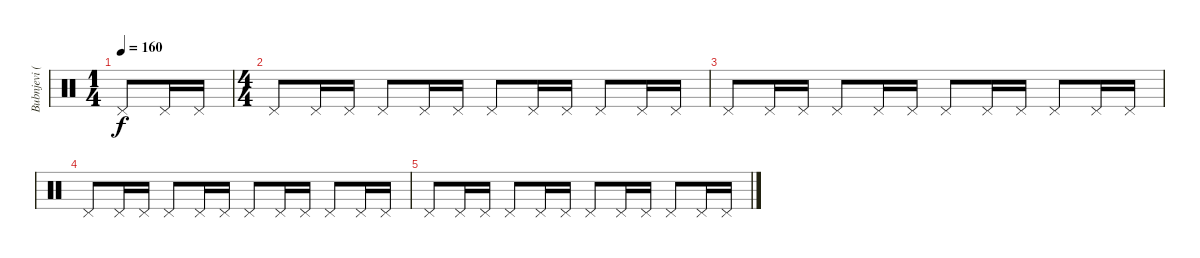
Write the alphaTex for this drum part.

\track ("Bubnjevi (Nasko Budimic)" "Bubnjevi (") {instrument percussion}
\staff {score}
\articulation defaults
\ts (1 4)
\tempo 160
\clef neutral
\ks c "Pedal Hi-Hat (hit)".8{dy f} "Pedal Hi-Hat (hit)".16 "Pedal Hi-Hat (hit)".16
|
\ts (4 4)
"Pedal Hi-Hat (hit)".8{volume 2} "Pedal Hi-Hat (hit)".16 "Pedal Hi-Hat (hit)".16 "Pedal Hi-Hat (hit)".8 "Pedal Hi-Hat (hit)".16 "Pedal Hi-Hat (hit)".16 "Pedal Hi-Hat (hit)".8 "Pedal Hi-Hat (hit)".16 "Pedal Hi-Hat (hit)".16 "Pedal Hi-Hat (hit)".8 "Pedal Hi-Hat (hit)".16 "Pedal Hi-Hat (hit)".16 |
"Pedal Hi-Hat (hit)".8 "Pedal Hi-Hat (hit)".16 "Pedal Hi-Hat (hit)".16 "Pedal Hi-Hat (hit)".8 "Pedal Hi-Hat (hit)".16 "Pedal Hi-Hat (hit)".16 "Pedal Hi-Hat (hit)".8 "Pedal Hi-Hat (hit)".16 "Pedal Hi-Hat (hit)".16 "Pedal Hi-Hat (hit)".8 "Pedal Hi-Hat (hit)".16 "Pedal Hi-Hat (hit)".16 |
"Pedal Hi-Hat (hit)".8 "Pedal Hi-Hat (hit)".16 "Pedal Hi-Hat (hit)".16 "Pedal Hi-Hat (hit)".8 "Pedal Hi-Hat (hit)".16 "Pedal Hi-Hat (hit)".16 "Pedal Hi-Hat (hit)".8 "Pedal Hi-Hat (hit)".16 "Pedal Hi-Hat (hit)".16 "Pedal Hi-Hat (hit)".8 "Pedal Hi-Hat (hit)".16 "Pedal Hi-Hat (hit)".16 |
"Pedal Hi-Hat (hit)".8 "Pedal Hi-Hat (hit)".16 "Pedal Hi-Hat (hit)".16 "Pedal Hi-Hat (hit)".8 "Pedal Hi-Hat (hit)".16 "Pedal Hi-Hat (hit)".16 "Pedal Hi-Hat (hit)".8 "Pedal Hi-Hat (hit)".16 "Pedal Hi-Hat (hit)".16 "Pedal Hi-Hat (hit)".8 "Pedal Hi-Hat (hit)".16 "Pedal Hi-Hat (hit)".16
